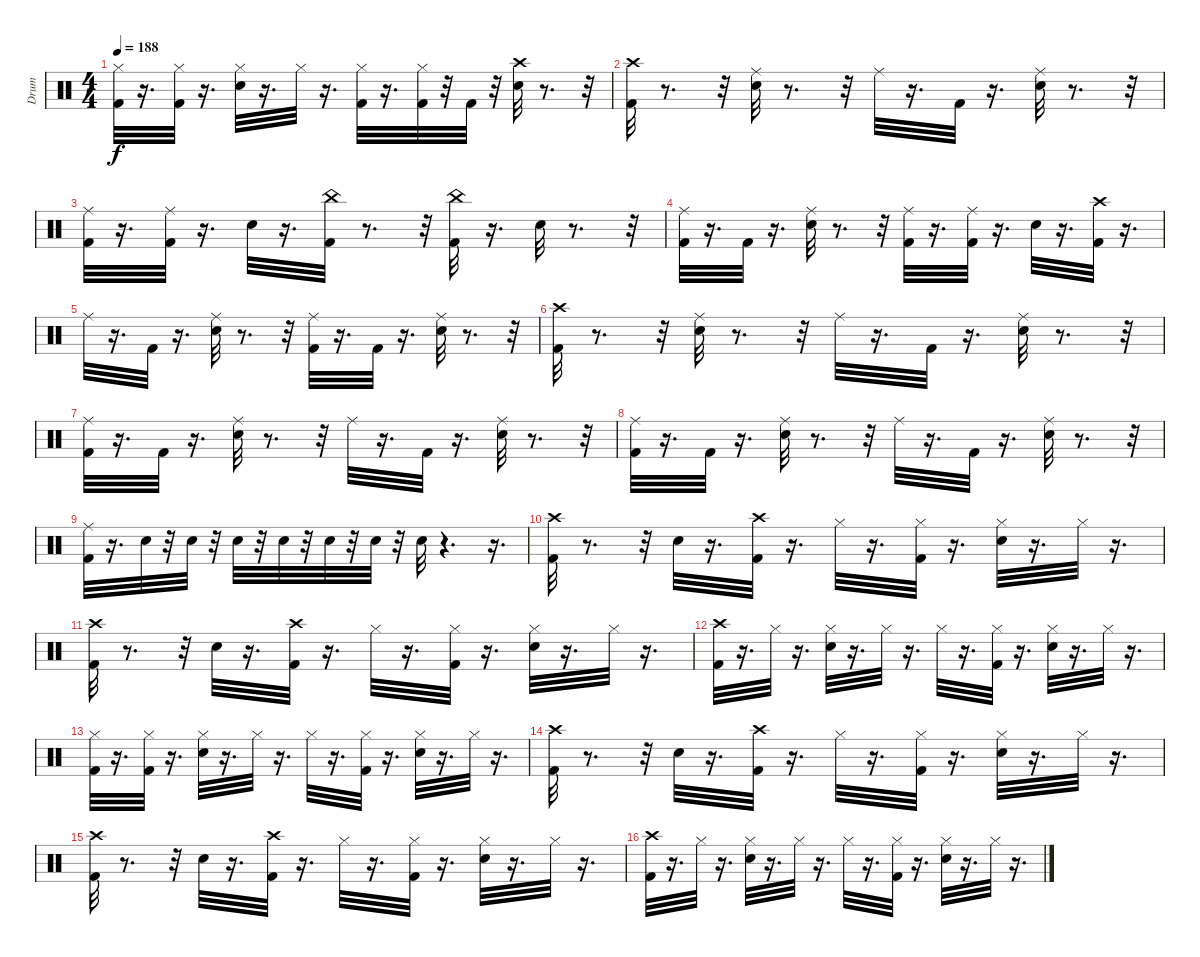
\track ("Drum" "Drum") {instrument percussion}
\staff {score}
\articulation defaults
\ts (4 4)
\tempo 188
\clef neutral
\ks c
("Hi-Hat (closed)" "Kick (hit) 2").32{dy f} r.16{d} ("Hi-Hat (closed)" "Kick (hit) 2").32 r.16{d} ("Hi-Hat (closed)" "Snare (hit) 2").32 r.16{d} "Hi-Hat (closed)".32 r.16{d} ("Hi-Hat (closed)" "Kick (hit) 2").32 r.16{d} ("Hi-Hat (closed)" "Kick (hit) 2").32 r.32 "Kick (hit) 2".32 r.32 ("Crash high (hit)" "Snare (hit) 2").32 r.8{d} r.32 |
("Crash high (hit)" "Kick (hit) 2").32 r.8{d} r.32 ("Ride (middle)" "Snare (hit) 2").32 r.8{d} r.32 "Ride (middle)".32 r.16{d} "Kick (hit) 2".32 r.16{d} ("Ride (middle)" "Snare (hit) 2").32 r.8{d} r.32 |
("Ride (middle)" "Kick (hit) 2").32 r.16{d} ("Ride (middle)" "Kick (hit) 2").32 r.16{d} "Snare (hit) 2".32 r.16{d} ("Kick (hit) 2" "China (hit)").32 r.8{d} r.32 ("Kick (hit) 2" "China (hit)").32 r.16{d} "Snare (hit) 2".32 r.8{d} r.32 |
("Ride (middle)" "Kick (hit) 2").32 r.16{d} "Kick (hit) 2".32 r.16{d} ("Ride (middle)" "Snare (hit) 2").32 r.8{d} r.32 ("Ride (middle)" "Kick (hit) 2").32 r.16{d} ("Ride (middle)" "Kick (hit) 2").32 r.16{d} "Snare (hit) 2".32 r.16{d} ("Crash high (hit)" "Kick (hit) 2").32 r.16{d} |
"Ride (middle)".32 r.16{d} "Kick (hit) 2".32 r.16{d} ("Ride (middle)" "Snare (hit) 2").32 r.8{d} r.32 ("Ride (middle)" "Kick (hit) 2").32 r.16{d} "Kick (hit) 2".32 r.16{d} ("Ride (middle)" "Snare (hit) 2").32 r.8{d} r.32 |
("Crash high (hit)" "Kick (hit) 2").32 r.8{d} r.32 ("Ride (middle)" "Snare (hit) 2").32 r.8{d} r.32 "Ride (middle)".32 r.16{d} "Kick (hit) 2".32 r.16{d} ("Ride (middle)" "Snare (hit) 2").32 r.8{d} r.32 |
("Ride (middle)" "Kick (hit) 2").32 r.16{d} "Kick (hit) 2".32 r.16{d} ("Ride (middle)" "Snare (hit) 2").32 r.8{d} r.32 "Ride (middle)".32 r.16{d} "Kick (hit) 2".32 r.16{d} ("Ride (middle)" "Snare (hit) 2").32 r.8{d} r.32 |
("Ride (middle)" "Kick (hit) 2").32 r.16{d} "Kick (hit) 2".32 r.16{d} ("Ride (middle)" "Snare (hit) 2").32 r.8{d} r.32 "Ride (middle)".32 r.16{d} "Kick (hit) 2".32 r.16{d} ("Ride (middle)" "Snare (hit) 2").32 r.8{d} r.32 |
("Ride (middle)" "Kick (hit) 2").32 r.16{d} "Snare (hit) 2".32 r.32 "Snare (hit) 2".32 r.32 "Snare (hit) 2".32 r.32 "Snare (hit) 2".32 r.32 "Snare (hit) 2".32 r.32 "Snare (hit) 2".32 r.32 "Snare (hit) 2".32 r.4{d} r.16{d} |
("Crash high (hit)" "Kick (hit) 2").32 r.8{d} r.32 "Snare (hit) 2".32 r.16{d} ("Crash high (hit)" "Kick (hit) 2").32 r.16{d} "Hi-Hat (closed)".32 r.16{d} ("Hi-Hat (closed)" "Kick (hit) 2").32 r.16{d} ("Hi-Hat (closed)" "Snare (hit) 2").32 r.16{d} "Hi-Hat (closed)".32 r.16{d} |
("Crash high (hit)" "Kick (hit) 2").32 r.8{d} r.32 "Snare (hit) 2".32 r.16{d} ("Crash high (hit)" "Kick (hit) 2").32 r.16{d} "Hi-Hat (closed)".32 r.16{d} ("Hi-Hat (closed)" "Kick (hit) 2").32 r.16{d} ("Hi-Hat (closed)" "Snare (hit) 2").32 r.16{d} "Hi-Hat (closed)".32 r.16{d} |
("Crash high (hit)" "Kick (hit) 2").32 r.16{d} "Hi-Hat (closed)".32 r.16{d} ("Hi-Hat (closed)" "Snare (hit) 2").32 r.16{d} "Hi-Hat (closed)".32 r.16{d} "Hi-Hat (closed)".32 r.16{d} ("Hi-Hat (closed)" "Kick (hit) 2").32 r.16{d} ("Hi-Hat (closed)" "Snare (hit) 2").32 r.16{d} "Hi-Hat (closed)".32 r.16{d} |
("Hi-Hat (closed)" "Kick (hit) 2").32 r.16{d} ("Hi-Hat (closed)" "Kick (hit) 2").32 r.16{d} ("Hi-Hat (closed)" "Snare (hit) 2").32 r.16{d} "Hi-Hat (closed)".32 r.16{d} "Hi-Hat (closed)".32 r.16{d} ("Hi-Hat (closed)" "Kick (hit) 2").32 r.16{d} ("Hi-Hat (closed)" "Snare (hit) 2").32 r.16{d} "Hi-Hat (closed)".32 r.16{d} |
("Crash high (hit)" "Kick (hit) 2").32 r.8{d} r.32 "Snare (hit) 2".32 r.16{d} ("Crash high (hit)" "Kick (hit) 2").32 r.16{d} "Hi-Hat (closed)".32 r.16{d} ("Hi-Hat (closed)" "Kick (hit) 2").32 r.16{d} ("Hi-Hat (closed)" "Snare (hit) 2").32 r.16{d} "Hi-Hat (closed)".32 r.16{d} |
("Crash high (hit)" "Kick (hit) 2").32 r.8{d} r.32 "Snare (hit) 2".32 r.16{d} ("Crash high (hit)" "Kick (hit) 2").32 r.16{d} "Hi-Hat (closed)".32 r.16{d} ("Hi-Hat (closed)" "Kick (hit) 2").32 r.16{d} ("Hi-Hat (closed)" "Snare (hit) 2").32 r.16{d} "Hi-Hat (closed)".32 r.16{d} |
("Crash high (hit)" "Kick (hit) 2").32 r.16{d} "Hi-Hat (closed)".32 r.16{d} ("Hi-Hat (closed)" "Snare (hit) 2").32 r.16{d} "Hi-Hat (closed)".32 r.16{d} "Hi-Hat (closed)".32 r.16{d} ("Hi-Hat (closed)" "Kick (hit) 2").32 r.16{d} ("Hi-Hat (closed)" "Snare (hit) 2").32 r.16{d} "Hi-Hat (closed)".32 r.16{d}
